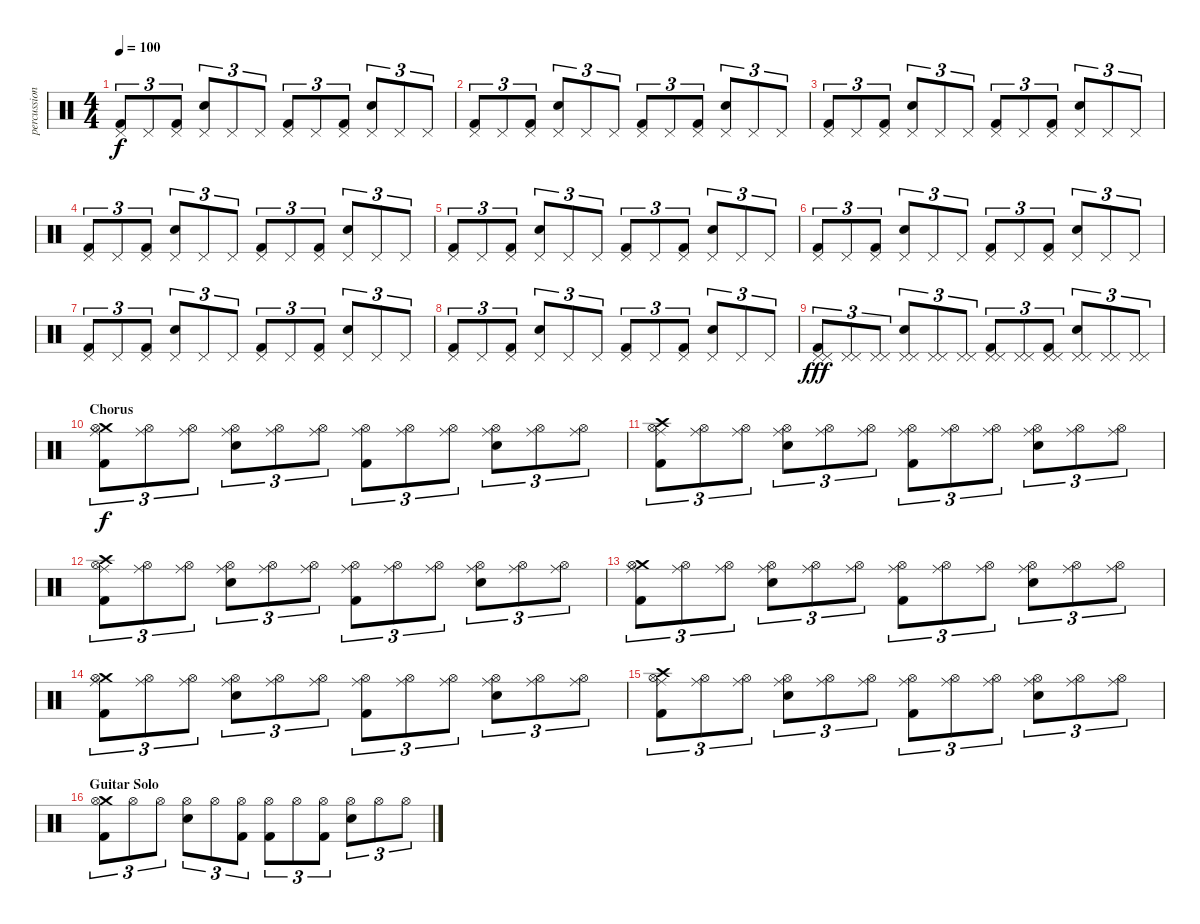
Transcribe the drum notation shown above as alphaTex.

\track ("percussion - vom" "percussion") {instrument percussion}
\staff {score}
\articulation defaults
\ts (4 4)
\tempo 100
\clef neutral
\ks c
("Pedal Hi-Hat (hit)" "Kick (hit) 2").8{tu (3 2) dy f} "Pedal Hi-Hat (hit)".8{tu (3 2)} ("Pedal Hi-Hat (hit)" "Kick (hit) 2").8{tu (3 2)} ("Pedal Hi-Hat (hit)" "Snare (hit) 2").8{tu (3 2)} "Pedal Hi-Hat (hit)".8{tu (3 2)} "Pedal Hi-Hat (hit)".8{tu (3 2)} ("Pedal Hi-Hat (hit)" "Kick (hit) 2").8{tu (3 2)} "Pedal Hi-Hat (hit)".8{tu (3 2)} ("Pedal Hi-Hat (hit)" "Kick (hit) 2").8{tu (3 2)} ("Pedal Hi-Hat (hit)" "Snare (hit) 2").8{tu (3 2)} "Pedal Hi-Hat (hit)".8{tu (3 2)} "Pedal Hi-Hat (hit)".8{tu (3 2)} |
("Pedal Hi-Hat (hit)" "Kick (hit) 2").8{tu (3 2)} "Pedal Hi-Hat (hit)".8{tu (3 2)} ("Pedal Hi-Hat (hit)" "Kick (hit) 2").8{tu (3 2)} ("Pedal Hi-Hat (hit)" "Snare (hit) 2").8{tu (3 2)} "Pedal Hi-Hat (hit)".8{tu (3 2)} "Pedal Hi-Hat (hit)".8{tu (3 2)} ("Pedal Hi-Hat (hit)" "Kick (hit) 2").8{tu (3 2)} "Pedal Hi-Hat (hit)".8{tu (3 2)} ("Pedal Hi-Hat (hit)" "Kick (hit) 2").8{tu (3 2)} ("Pedal Hi-Hat (hit)" "Snare (hit) 2").8{tu (3 2)} "Pedal Hi-Hat (hit)".8{tu (3 2)} "Pedal Hi-Hat (hit)".8{tu (3 2)} |
("Pedal Hi-Hat (hit)" "Kick (hit) 2").8{tu (3 2)} "Pedal Hi-Hat (hit)".8{tu (3 2)} ("Pedal Hi-Hat (hit)" "Kick (hit) 2").8{tu (3 2)} ("Pedal Hi-Hat (hit)" "Snare (hit) 2").8{tu (3 2)} "Pedal Hi-Hat (hit)".8{tu (3 2)} "Pedal Hi-Hat (hit)".8{tu (3 2)} ("Pedal Hi-Hat (hit)" "Kick (hit) 2").8{tu (3 2)} "Pedal Hi-Hat (hit)".8{tu (3 2)} ("Pedal Hi-Hat (hit)" "Kick (hit) 2").8{tu (3 2)} ("Pedal Hi-Hat (hit)" "Snare (hit) 2").8{tu (3 2)} "Pedal Hi-Hat (hit)".8{tu (3 2)} "Pedal Hi-Hat (hit)".8{tu (3 2)} |
("Pedal Hi-Hat (hit)" "Kick (hit) 2").8{tu (3 2)} "Pedal Hi-Hat (hit)".8{tu (3 2)} ("Pedal Hi-Hat (hit)" "Kick (hit) 2").8{tu (3 2)} ("Pedal Hi-Hat (hit)" "Snare (hit) 2").8{tu (3 2)} "Pedal Hi-Hat (hit)".8{tu (3 2)} "Pedal Hi-Hat (hit)".8{tu (3 2)} ("Pedal Hi-Hat (hit)" "Kick (hit) 2").8{tu (3 2)} "Pedal Hi-Hat (hit)".8{tu (3 2)} ("Pedal Hi-Hat (hit)" "Kick (hit) 2").8{tu (3 2)} ("Pedal Hi-Hat (hit)" "Snare (hit) 2").8{tu (3 2)} "Pedal Hi-Hat (hit)".8{tu (3 2)} "Pedal Hi-Hat (hit)".8{tu (3 2)} |
("Pedal Hi-Hat (hit)" "Kick (hit) 2").8{tu (3 2)} "Pedal Hi-Hat (hit)".8{tu (3 2)} ("Pedal Hi-Hat (hit)" "Kick (hit) 2").8{tu (3 2)} ("Pedal Hi-Hat (hit)" "Snare (hit) 2").8{tu (3 2)} "Pedal Hi-Hat (hit)".8{tu (3 2)} "Pedal Hi-Hat (hit)".8{tu (3 2)} ("Pedal Hi-Hat (hit)" "Kick (hit) 2").8{tu (3 2)} "Pedal Hi-Hat (hit)".8{tu (3 2)} ("Pedal Hi-Hat (hit)" "Kick (hit) 2").8{tu (3 2)} ("Pedal Hi-Hat (hit)" "Snare (hit) 2").8{tu (3 2)} "Pedal Hi-Hat (hit)".8{tu (3 2)} "Pedal Hi-Hat (hit)".8{tu (3 2)} |
("Pedal Hi-Hat (hit)" "Kick (hit) 2").8{tu (3 2)} "Pedal Hi-Hat (hit)".8{tu (3 2)} ("Pedal Hi-Hat (hit)" "Kick (hit) 2").8{tu (3 2)} ("Pedal Hi-Hat (hit)" "Snare (hit) 2").8{tu (3 2)} "Pedal Hi-Hat (hit)".8{tu (3 2)} "Pedal Hi-Hat (hit)".8{tu (3 2)} ("Pedal Hi-Hat (hit)" "Kick (hit) 2").8{tu (3 2)} "Pedal Hi-Hat (hit)".8{tu (3 2)} ("Pedal Hi-Hat (hit)" "Kick (hit) 2").8{tu (3 2)} ("Pedal Hi-Hat (hit)" "Snare (hit) 2").8{tu (3 2)} "Pedal Hi-Hat (hit)".8{tu (3 2)} "Pedal Hi-Hat (hit)".8{tu (3 2)} |
("Pedal Hi-Hat (hit)" "Kick (hit) 2").8{tu (3 2)} "Pedal Hi-Hat (hit)".8{tu (3 2)} ("Pedal Hi-Hat (hit)" "Kick (hit) 2").8{tu (3 2)} ("Pedal Hi-Hat (hit)" "Snare (hit) 2").8{tu (3 2)} "Pedal Hi-Hat (hit)".8{tu (3 2)} "Pedal Hi-Hat (hit)".8{tu (3 2)} ("Pedal Hi-Hat (hit)" "Kick (hit) 2").8{tu (3 2)} "Pedal Hi-Hat (hit)".8{tu (3 2)} ("Pedal Hi-Hat (hit)" "Kick (hit) 2").8{tu (3 2)} ("Pedal Hi-Hat (hit)" "Snare (hit) 2").8{tu (3 2)} "Pedal Hi-Hat (hit)".8{tu (3 2)} "Pedal Hi-Hat (hit)".8{tu (3 2)} |
("Pedal Hi-Hat (hit)" "Kick (hit) 2").8{tu (3 2)} "Pedal Hi-Hat (hit)".8{tu (3 2)} ("Pedal Hi-Hat (hit)" "Kick (hit) 2").8{tu (3 2)} ("Pedal Hi-Hat (hit)" "Snare (hit) 2").8{tu (3 2)} "Pedal Hi-Hat (hit)".8{tu (3 2)} "Pedal Hi-Hat (hit)".8{tu (3 2)} ("Pedal Hi-Hat (hit)" "Kick (hit) 2").8{tu (3 2)} "Pedal Hi-Hat (hit)".8{tu (3 2)} ("Pedal Hi-Hat (hit)" "Kick (hit) 2").8{tu (3 2)} ("Pedal Hi-Hat (hit)" "Snare (hit) 2").8{tu (3 2)} "Pedal Hi-Hat (hit)".8{tu (3 2)} "Pedal Hi-Hat (hit)".8{tu (3 2)} |
("Pedal Hi-Hat (hit)" "Pedal Hi-Hat (hit)" "Kick (hit) 2").8{tu (3 2) dy fff} ("Pedal Hi-Hat (hit)" "Pedal Hi-Hat (hit)").8{tu (3 2)} ("Pedal Hi-Hat (hit)" "Pedal Hi-Hat (hit)").8{tu (3 2)} ("Pedal Hi-Hat (hit)" "Pedal Hi-Hat (hit)" "Snare (hit) 2").8{tu (3 2)} ("Pedal Hi-Hat (hit)" "Pedal Hi-Hat (hit)").8{tu (3 2)} ("Pedal Hi-Hat (hit)" "Pedal Hi-Hat (hit)").8{tu (3 2)} ("Pedal Hi-Hat (hit)" "Pedal Hi-Hat (hit)" "Kick (hit) 2").8{tu (3 2)} ("Pedal Hi-Hat (hit)" "Pedal Hi-Hat (hit)").8{tu (3 2)} ("Pedal Hi-Hat (hit)" "Pedal Hi-Hat (hit)" "Kick (hit) 2").8{tu (3 2)} ("Pedal Hi-Hat (hit)" "Pedal Hi-Hat (hit)" "Snare (hit) 2").8{tu (3 2)} ("Pedal Hi-Hat (hit)" "Pedal Hi-Hat (hit)").8{tu (3 2)} ("Pedal Hi-Hat (hit)" "Pedal Hi-Hat (hit)").8{tu (3 2)} |
\section ("" "Chorus")
("Ride (middle)" "Crash medium (hit)" "Hi-Hat (open)" "Kick (hit) 2").8{tu (3 2) dy f} ("Ride (middle)" "Hi-Hat (open)").8{tu (3 2)} ("Ride (middle)" "Hi-Hat (open)").8{tu (3 2)} ("Ride (middle)" "Hi-Hat (open)" "Snare (hit) 2").8{tu (3 2)} ("Ride (middle)" "Hi-Hat (open)").8{tu (3 2)} ("Ride (middle)" "Hi-Hat (open)").8{tu (3 2)} ("Ride (middle)" "Hi-Hat (open)" "Kick (hit) 2").8{tu (3 2)} ("Ride (middle)" "Hi-Hat (open)").8{tu (3 2)} ("Ride (middle)" "Hi-Hat (open)").8{tu (3 2)} ("Ride (middle)" "Hi-Hat (open)" "Snare (hit) 2").8{tu (3 2)} ("Ride (middle)" "Hi-Hat (open)").8{tu (3 2)} ("Ride (middle)" "Hi-Hat (open)").8{tu (3 2)} |
("Ride (middle)" "Crash high (hit)" "Hi-Hat (open)" "Kick (hit) 2").8{tu (3 2)} ("Ride (middle)" "Hi-Hat (open)").8{tu (3 2)} ("Ride (middle)" "Hi-Hat (open)").8{tu (3 2)} ("Ride (middle)" "Hi-Hat (open)" "Snare (hit) 2").8{tu (3 2)} ("Ride (middle)" "Hi-Hat (open)").8{tu (3 2)} ("Ride (middle)" "Hi-Hat (open)").8{tu (3 2)} ("Ride (middle)" "Hi-Hat (open)" "Kick (hit) 2").8{tu (3 2)} ("Ride (middle)" "Hi-Hat (open)").8{tu (3 2)} ("Ride (middle)" "Hi-Hat (open)").8{tu (3 2)} ("Ride (middle)" "Hi-Hat (open)" "Snare (hit) 2").8{tu (3 2)} ("Ride (middle)" "Hi-Hat (open)").8{tu (3 2)} ("Ride (middle)" "Hi-Hat (open)").8{tu (3 2)} |
("Ride (middle)" "Crash high (hit)" "Hi-Hat (open)" "Kick (hit) 2").8{tu (3 2)} ("Ride (middle)" "Hi-Hat (open)").8{tu (3 2)} ("Ride (middle)" "Hi-Hat (open)").8{tu (3 2)} ("Ride (middle)" "Hi-Hat (open)" "Snare (hit) 2").8{tu (3 2)} ("Ride (middle)" "Hi-Hat (open)").8{tu (3 2)} ("Ride (middle)" "Hi-Hat (open)").8{tu (3 2)} ("Ride (middle)" "Hi-Hat (open)" "Kick (hit) 2").8{tu (3 2)} ("Ride (middle)" "Hi-Hat (open)").8{tu (3 2)} ("Ride (middle)" "Hi-Hat (open)").8{tu (3 2)} ("Ride (middle)" "Hi-Hat (open)" "Snare (hit) 2").8{tu (3 2)} ("Ride (middle)" "Hi-Hat (open)").8{tu (3 2)} ("Ride (middle)" "Hi-Hat (open)").8{tu (3 2)} |
("Ride (middle)" "Crash medium (hit)" "Hi-Hat (open)" "Kick (hit) 2").8{tu (3 2)} ("Ride (middle)" "Hi-Hat (open)").8{tu (3 2)} ("Ride (middle)" "Hi-Hat (open)").8{tu (3 2)} ("Ride (middle)" "Hi-Hat (open)" "Snare (hit) 2").8{tu (3 2)} ("Ride (middle)" "Hi-Hat (open)").8{tu (3 2)} ("Ride (middle)" "Hi-Hat (open)").8{tu (3 2)} ("Ride (middle)" "Hi-Hat (open)" "Kick (hit) 2").8{tu (3 2)} ("Ride (middle)" "Hi-Hat (open)").8{tu (3 2)} ("Ride (middle)" "Hi-Hat (open)").8{tu (3 2)} ("Ride (middle)" "Hi-Hat (open)" "Snare (hit) 2").8{tu (3 2)} ("Ride (middle)" "Hi-Hat (open)").8{tu (3 2)} ("Ride (middle)" "Hi-Hat (open)").8{tu (3 2)} |
("Ride (middle)" "Crash medium (hit)" "Hi-Hat (open)" "Kick (hit) 2").8{tu (3 2)} ("Ride (middle)" "Hi-Hat (open)").8{tu (3 2)} ("Ride (middle)" "Hi-Hat (open)").8{tu (3 2)} ("Ride (middle)" "Hi-Hat (open)" "Snare (hit) 2").8{tu (3 2)} ("Ride (middle)" "Hi-Hat (open)").8{tu (3 2)} ("Ride (middle)" "Hi-Hat (open)").8{tu (3 2)} ("Ride (middle)" "Hi-Hat (open)" "Kick (hit) 2").8{tu (3 2)} ("Ride (middle)" "Hi-Hat (open)").8{tu (3 2)} ("Ride (middle)" "Hi-Hat (open)").8{tu (3 2)} ("Ride (middle)" "Hi-Hat (open)" "Snare (hit) 2").8{tu (3 2)} ("Ride (middle)" "Hi-Hat (open)").8{tu (3 2)} ("Ride (middle)" "Hi-Hat (open)").8{tu (3 2)} |
("Ride (middle)" "Crash high (hit)" "Hi-Hat (open)" "Kick (hit) 2").8{tu (3 2)} ("Ride (middle)" "Hi-Hat (open)").8{tu (3 2)} ("Ride (middle)" "Hi-Hat (open)").8{tu (3 2)} ("Ride (middle)" "Hi-Hat (open)" "Snare (hit) 2").8{tu (3 2)} ("Ride (middle)" "Hi-Hat (open)").8{tu (3 2)} ("Ride (middle)" "Hi-Hat (open)").8{tu (3 2)} ("Ride (middle)" "Hi-Hat (open)" "Kick (hit) 2").8{tu (3 2)} ("Ride (middle)" "Hi-Hat (open)").8{tu (3 2)} ("Ride (middle)" "Hi-Hat (open)").8{tu (3 2)} ("Ride (middle)" "Hi-Hat (open)" "Snare (hit) 2").8{tu (3 2)} ("Ride (middle)" "Hi-Hat (open)").8{tu (3 2)} ("Ride (middle)" "Hi-Hat (open)").8{tu (3 2)} |
\section ("" "Guitar Solo")
("Crash medium (hit)" "Hi-Hat (open)" "Kick (hit) 2").8{tu (3 2)} "Hi-Hat (open)".8{tu (3 2)} "Hi-Hat (open)".8{tu (3 2)} ("Hi-Hat (open)" "Snare (hit) 2").8{tu (3 2)} "Hi-Hat (open)".8{tu (3 2)} ("Hi-Hat (open)" "Kick (hit) 2").8{tu (3 2)} ("Hi-Hat (open)" "Kick (hit) 2").8{tu (3 2)} "Hi-Hat (open)".8{tu (3 2)} ("Hi-Hat (open)" "Kick (hit) 2").8{tu (3 2)} ("Hi-Hat (open)" "Snare (hit) 2").8{tu (3 2)} "Hi-Hat (open)".8{tu (3 2)} "Hi-Hat (open)".8{tu (3 2)}
